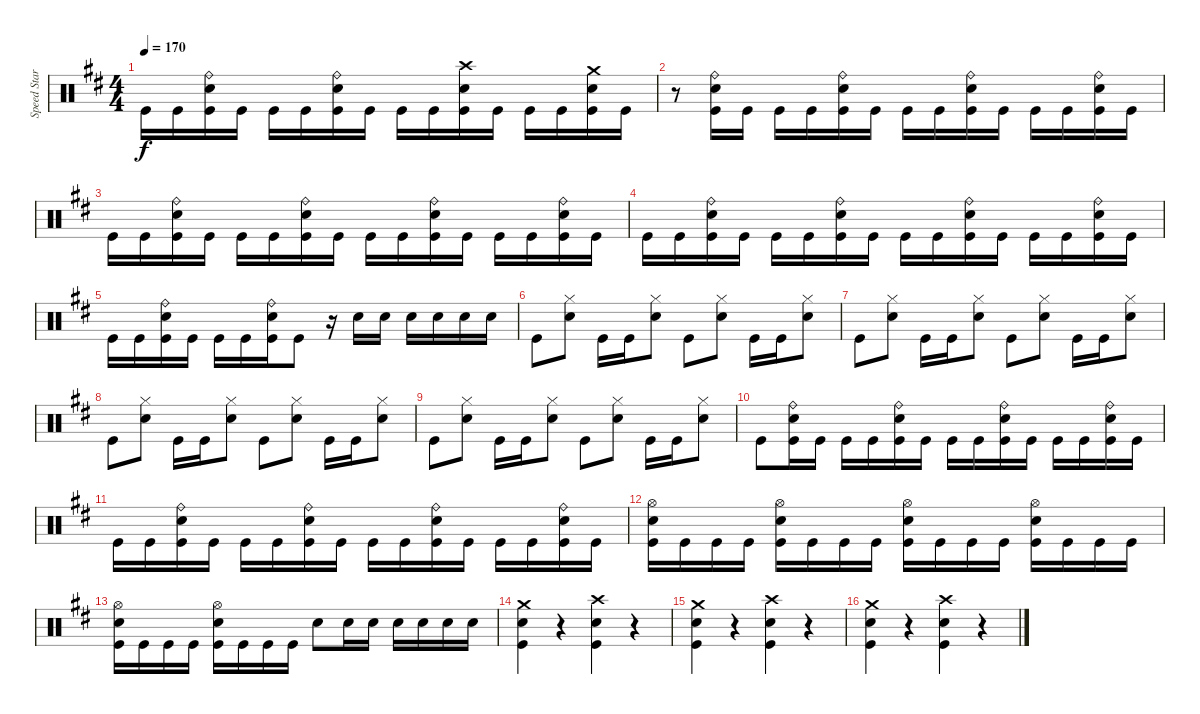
\track ("Speed Star" "Speed Star") {instrument percussion}
\staff {score}
\articulation defaults
\ts (4 4)
\tempo 170
\clef neutral
\ks d "Kick (hit)".16{dy f} "Kick (hit)".16
("Kick (hit)" "Snare (hit) 2" "Ride (bell)").16 "Kick (hit)".16 "Kick (hit)".16 "Kick (hit)".16 ("Kick (hit)" "Snare (hit) 2" "Ride (bell)").16 "Kick (hit)".16 "Kick (hit)".16 "Kick (hit)".16 ("Kick (hit)" "Snare (hit) 2" "Crash high (hit)").16 "Kick (hit)".16 "Kick (hit)".16 "Kick (hit)".16 ("Kick (hit)" "Snare (hit) 2" "Crash medium (hit)").16 "Kick (hit)".16 |
r.8 ("Kick (hit)" "Snare (hit) 2" "Ride (bell)").16 "Kick (hit)".16 "Kick (hit)".16 "Kick (hit)".16 ("Kick (hit)" "Snare (hit) 2" "Ride (bell)").16 "Kick (hit)".16 "Kick (hit)".16 "Kick (hit)".16 ("Kick (hit)" "Snare (hit) 2" "Ride (bell)").16 "Kick (hit)".16 "Kick (hit)".16 "Kick (hit)".16 ("Kick (hit)" "Snare (hit) 2" "Ride (bell)").16 "Kick (hit)".16 |
"Kick (hit)".16 "Kick (hit)".16 ("Kick (hit)" "Snare (hit) 2" "Ride (bell)").16 "Kick (hit)".16 "Kick (hit)".16 "Kick (hit)".16 ("Kick (hit)" "Snare (hit) 2" "Ride (bell)").16 "Kick (hit)".16 "Kick (hit)".16 "Kick (hit)".16 ("Kick (hit)" "Snare (hit) 2" "Ride (bell)").16 "Kick (hit)".16 "Kick (hit)".16 "Kick (hit)".16 ("Kick (hit)" "Snare (hit) 2" "Ride (bell)").16 "Kick (hit)".16 |
"Kick (hit)".16 "Kick (hit)".16 ("Kick (hit)" "Snare (hit) 2" "Ride (bell)").16 "Kick (hit)".16 "Kick (hit)".16 "Kick (hit)".16 ("Kick (hit)" "Snare (hit) 2" "Ride (bell)").16 "Kick (hit)".16 "Kick (hit)".16 "Kick (hit)".16 ("Kick (hit)" "Snare (hit) 2" "Ride (bell)").16 "Kick (hit)".16 "Kick (hit)".16 "Kick (hit)".16 ("Kick (hit)" "Snare (hit) 2" "Ride (bell)").16 "Kick (hit)".16 |
"Kick (hit)".16 "Kick (hit)".16 ("Kick (hit)" "Snare (hit) 2" "Ride (bell)").16 "Kick (hit)".16 "Kick (hit)".16 "Kick (hit)".16 ("Kick (hit)" "Snare (hit) 2" "Ride (bell)").16 "Kick (hit)".8 r.16 "Snare (hit) 2".16 "Snare (hit) 2".16 "Snare (hit) 2".16 "Snare (hit) 2".16 "Snare (hit) 2".16 "Snare (hit) 2".16 |
"Kick (hit)".8 ("Snare (hit) 2" "Hi-Hat (closed)").8 "Kick (hit)".16 "Kick (hit)".16 ("Snare (hit) 2" "Hi-Hat (closed)").8 "Kick (hit)".8 ("Snare (hit) 2" "Hi-Hat (closed)").8 "Kick (hit)".16 "Kick (hit)".16 ("Snare (hit) 2" "Hi-Hat (closed)").8 |
"Kick (hit)".8 ("Snare (hit) 2" "Hi-Hat (closed)").8 "Kick (hit)".16 "Kick (hit)".16 ("Snare (hit) 2" "Hi-Hat (closed)").8 "Kick (hit)".8 ("Snare (hit) 2" "Hi-Hat (closed)").8 "Kick (hit)".16 "Kick (hit)".16 ("Snare (hit) 2" "Hi-Hat (closed)").8 |
"Kick (hit)".8 ("Snare (hit) 2" "Hi-Hat (closed)").8 "Kick (hit)".16 "Kick (hit)".16 ("Snare (hit) 2" "Hi-Hat (closed)").8 "Kick (hit)".8 ("Snare (hit) 2" "Hi-Hat (closed)").8 "Kick (hit)".16 "Kick (hit)".16 ("Snare (hit) 2" "Hi-Hat (closed)").8 |
"Kick (hit)".8 ("Snare (hit) 2" "Hi-Hat (closed)").8 "Kick (hit)".16 "Kick (hit)".16 ("Snare (hit) 2" "Hi-Hat (closed)").8 "Kick (hit)".8 ("Snare (hit) 2" "Hi-Hat (closed)").8 "Kick (hit)".16 "Kick (hit)".16 ("Snare (hit) 2" "Hi-Hat (closed)").8 |
"Kick (hit)".8 ("Kick (hit)" "Snare (hit) 2" "Ride (bell)").16 "Kick (hit)".16 "Kick (hit)".16 "Kick (hit)".16 ("Kick (hit)" "Snare (hit) 2" "Ride (bell)").16 "Kick (hit)".16 "Kick (hit)".16 "Kick (hit)".16 ("Kick (hit)" "Snare (hit) 2" "Ride (bell)").16 "Kick (hit)".16 "Kick (hit)".16 "Kick (hit)".16 ("Kick (hit)" "Snare (hit) 2" "Ride (bell)").16 "Kick (hit)".16 |
"Kick (hit)".16 "Kick (hit)".16 ("Kick (hit)" "Snare (hit) 2" "Ride (bell)").16 "Kick (hit)".16 "Kick (hit)".16 "Kick (hit)".16 ("Kick (hit)" "Snare (hit) 2" "Ride (bell)").16 "Kick (hit)".16 "Kick (hit)".16 "Kick (hit)".16 ("Kick (hit)" "Snare (hit) 2" "Ride (bell)").16 "Kick (hit)".16 "Kick (hit)".16 "Kick (hit)".16 ("Kick (hit)" "Snare (hit) 2" "Ride (bell)").16 "Kick (hit)".16 |
("Kick (hit)" "Snare (hit) 2" "Hi-Hat (open)").16 "Kick (hit)".16 "Kick (hit)".16 "Kick (hit)".16 ("Kick (hit)" "Snare (hit) 2" "Hi-Hat (open)").16 "Kick (hit)".16 "Kick (hit)".16 "Kick (hit)".16 ("Kick (hit)" "Snare (hit) 2" "Hi-Hat (open)").16 "Kick (hit)".16 "Kick (hit)".16 "Kick (hit)".16 ("Kick (hit)" "Snare (hit) 2" "Hi-Hat (open)").16 "Kick (hit)".16 "Kick (hit)".16 "Kick (hit)".16 |
("Kick (hit)" "Snare (hit) 2" "Hi-Hat (open)").16 "Kick (hit)".16 "Kick (hit)".16 "Kick (hit)".16 ("Kick (hit)" "Snare (hit) 2" "Hi-Hat (open)").16 "Kick (hit)".16 "Kick (hit)".16 "Kick (hit)".16 "Snare (hit) 2".8 "Snare (hit) 2".16 "Snare (hit) 2".16 "Snare (hit) 2".16 "Snare (hit) 2".16 "Snare (hit) 2".16 "Snare (hit) 2".16 |
("Snare (hit) 2" "Kick (hit)" "Crash medium (hit)").4 r.4 ("Snare (hit) 2" "Kick (hit)" "Crash high (hit)").4 r.4 |
("Snare (hit) 2" "Kick (hit)" "Crash medium (hit)").4 r.4 ("Snare (hit) 2" "Kick (hit)" "Crash high (hit)").4 r.4 |
("Snare (hit) 2" "Kick (hit)" "Crash medium (hit)").4 r.4 ("Snare (hit) 2" "Kick (hit)" "Crash high (hit)").4 r.4
